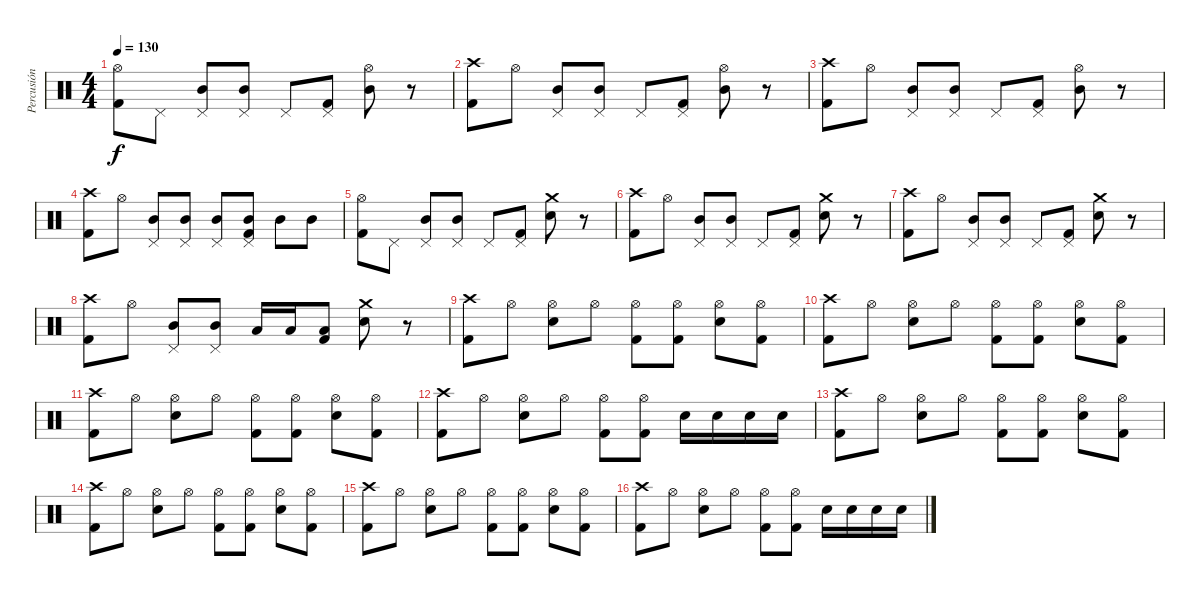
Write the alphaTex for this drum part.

\track ("Percusión" "Percusión") {instrument percussion}
\staff {score}
\articulation defaults
\ts (4 4)
\tempo 130
\clef neutral
\ks c
("Hi-Hat (open)" "Kick (hit) 2").8{dy f} "Pedal Hi-Hat (hit)".8 ("Pedal Hi-Hat (hit)" "Mid Tom (hit)").8 ("Pedal Hi-Hat (hit)" "Mid Tom (hit)").8 "Pedal Hi-Hat (hit)".8 ("Pedal Hi-Hat (hit)" "Kick (hit) 2").8 ("Hi-Hat (open)" "Mid Tom (hit)").8 r.8 |
("Crash high (hit)" "Kick (hit) 2").8 "Hi-Hat (open)".8 ("Pedal Hi-Hat (hit)" "Mid Tom (hit)").8 ("Pedal Hi-Hat (hit)" "Mid Tom (hit)").8 "Pedal Hi-Hat (hit)".8 ("Pedal Hi-Hat (hit)" "Kick (hit) 2").8 ("Hi-Hat (open)" "Mid Tom (hit)").8 r.8 |
("Crash high (hit)" "Kick (hit) 2").8 "Hi-Hat (open)".8 ("Pedal Hi-Hat (hit)" "Mid Tom (hit)").8 ("Pedal Hi-Hat (hit)" "Mid Tom (hit)").8 "Pedal Hi-Hat (hit)".8 ("Pedal Hi-Hat (hit)" "Kick (hit) 2").8 ("Hi-Hat (open)" "Mid Tom (hit)").8 r.8 |
("Crash high (hit)" "Kick (hit) 2").8 "Hi-Hat (open)".8 ("Pedal Hi-Hat (hit)" "Mid Tom (hit)").8 ("Pedal Hi-Hat (hit)" "Mid Tom (hit)").8 ("Pedal Hi-Hat (hit)" "Mid Tom (hit)").8 ("Pedal Hi-Hat (hit)" "Mid Tom (hit)" "Kick (hit) 2").8 "Mid Tom (hit)".8 "Mid Tom (hit)".8 |
("Hi-Hat (open)" "Kick (hit) 2").8 "Pedal Hi-Hat (hit)".8 ("Pedal Hi-Hat (hit)" "Mid Tom (hit)").8 ("Pedal Hi-Hat (hit)" "Mid Tom (hit)").8 "Pedal Hi-Hat (hit)".8 ("Pedal Hi-Hat (hit)" "Kick (hit) 2").8 ("Crash medium (hit)" "Electric Snare (hit)").8 r.8 |
("Crash high (hit)" "Kick (hit) 2").8 "Hi-Hat (open)".8 ("Pedal Hi-Hat (hit)" "Mid Tom (hit)").8 ("Pedal Hi-Hat (hit)" "Mid Tom (hit)").8 "Pedal Hi-Hat (hit)".8 ("Pedal Hi-Hat (hit)" "Kick (hit) 2").8 ("Crash medium (hit)" "Electric Snare (hit)").8 r.8 |
("Crash high (hit)" "Kick (hit) 2").8 "Hi-Hat (open)".8 ("Pedal Hi-Hat (hit)" "Mid Tom (hit)").8 ("Pedal Hi-Hat (hit)" "Mid Tom (hit)").8 "Pedal Hi-Hat (hit)".8 ("Pedal Hi-Hat (hit)" "Kick (hit) 2").8 ("Crash medium (hit)" "Electric Snare (hit)").8 r.8 |
("Crash high (hit)" "Kick (hit) 2").8 "Hi-Hat (open)".8 ("Pedal Hi-Hat (hit)" "Mid Tom (hit)").8 ("Pedal Hi-Hat (hit)" "Mid Tom (hit)").8 "Low Tom (hit)".16 "Low Tom (hit)".16 ("Low Tom (hit)" "Kick (hit) 2").8 ("Crash medium (hit)" "Electric Snare (hit)").8 r.8 |
("Crash high (hit)" "Kick (hit) 2").8 "Hi-Hat (open)".8 ("Hi-Hat (open)" "Electric Snare (hit)").8 "Hi-Hat (open)".8 ("Hi-Hat (open)" "Kick (hit) 2").8 ("Hi-Hat (open)" "Kick (hit) 2").8 ("Hi-Hat (open)" "Electric Snare (hit)").8 ("Hi-Hat (open)" "Kick (hit) 2").8 |
("Crash high (hit)" "Kick (hit) 2").8 "Hi-Hat (open)".8 ("Hi-Hat (open)" "Electric Snare (hit)").8 "Hi-Hat (open)".8 ("Hi-Hat (open)" "Kick (hit) 2").8 ("Hi-Hat (open)" "Kick (hit) 2").8 ("Hi-Hat (open)" "Electric Snare (hit)").8 ("Hi-Hat (open)" "Kick (hit) 2").8 |
("Crash high (hit)" "Kick (hit) 2").8 "Hi-Hat (open)".8 ("Hi-Hat (open)" "Electric Snare (hit)").8 "Hi-Hat (open)".8 ("Hi-Hat (open)" "Kick (hit) 2").8 ("Hi-Hat (open)" "Kick (hit) 2").8 ("Hi-Hat (open)" "Electric Snare (hit)").8 ("Hi-Hat (open)" "Kick (hit) 2").8 |
("Crash high (hit)" "Kick (hit) 2").8 "Hi-Hat (open)".8 ("Hi-Hat (open)" "Electric Snare (hit)").8 "Hi-Hat (open)".8 ("Hi-Hat (open)" "Kick (hit) 2").8 ("Hi-Hat (open)" "Kick (hit) 2").8 "Electric Snare (hit)".16 "Electric Snare (hit)".16 "Electric Snare (hit)".16 "Electric Snare (hit)".16 |
("Crash high (hit)" "Kick (hit) 2").8 "Hi-Hat (open)".8 ("Hi-Hat (open)" "Electric Snare (hit)").8 "Hi-Hat (open)".8 ("Hi-Hat (open)" "Kick (hit) 2").8 ("Hi-Hat (open)" "Kick (hit) 2").8 ("Hi-Hat (open)" "Electric Snare (hit)").8 ("Hi-Hat (open)" "Kick (hit) 2").8 |
("Crash high (hit)" "Kick (hit) 2").8 "Hi-Hat (open)".8 ("Hi-Hat (open)" "Electric Snare (hit)").8 "Hi-Hat (open)".8 ("Hi-Hat (open)" "Kick (hit) 2").8 ("Hi-Hat (open)" "Kick (hit) 2").8 ("Hi-Hat (open)" "Electric Snare (hit)").8 ("Hi-Hat (open)" "Kick (hit) 2").8 |
("Crash high (hit)" "Kick (hit) 2").8 "Hi-Hat (open)".8 ("Hi-Hat (open)" "Electric Snare (hit)").8 "Hi-Hat (open)".8 ("Hi-Hat (open)" "Kick (hit) 2").8 ("Hi-Hat (open)" "Kick (hit) 2").8 ("Hi-Hat (open)" "Electric Snare (hit)").8 ("Hi-Hat (open)" "Kick (hit) 2").8 |
("Crash high (hit)" "Kick (hit) 2").8 "Hi-Hat (open)".8 ("Hi-Hat (open)" "Electric Snare (hit)").8 "Hi-Hat (open)".8 ("Hi-Hat (open)" "Kick (hit) 2").8 ("Hi-Hat (open)" "Kick (hit) 2").8 "Electric Snare (hit)".16 "Electric Snare (hit)".16 "Electric Snare (hit)".16 "Electric Snare (hit)".16
